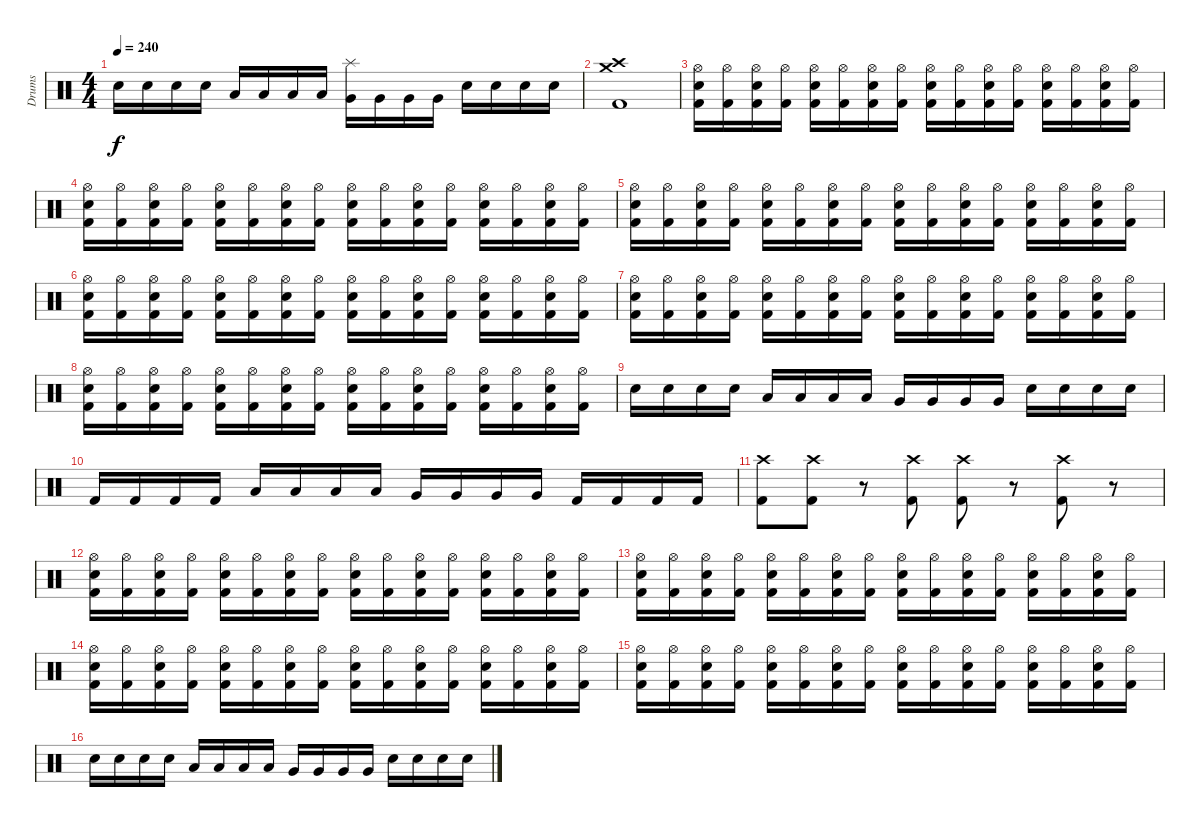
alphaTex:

\track ("Drums" "Drums") {instrument percussion}
\staff {score}
\articulation defaults
\ts (4 4)
\tempo 240
\clef neutral
\ks c "Electric Snare (hit)".16{dy f} "Electric Snare (hit)".16 "Electric Snare (hit)".16 "Electric Snare (hit)".16 "Low Tom (hit)".16 "Low Tom (hit)".16 "Low Tom (hit)".16 "Low Tom (hit)".16
("Splash (hit)" "Very Low Tom (hit)").16 "Very Low Tom (hit)".16 "Very Low Tom (hit)".16 "Very Low Tom (hit)".16 "Electric Snare (hit)".16 "Electric Snare (hit)".16 "Electric Snare (hit)".16 "Electric Snare (hit)".16 |
("Crash high (hit)" "Crash medium (hit)" "Kick (hit) 2").1 |
("Hi-Hat (open)" "Electric Snare (hit)" "Kick (hit) 2").16 ("Hi-Hat (open)" "Kick (hit) 2").16 ("Hi-Hat (open)" "Electric Snare (hit)" "Kick (hit) 2").16 ("Hi-Hat (open)" "Kick (hit) 2").16 ("Hi-Hat (open)" "Electric Snare (hit)" "Kick (hit) 2").16 ("Hi-Hat (open)" "Kick (hit) 2").16 ("Hi-Hat (open)" "Electric Snare (hit)" "Kick (hit) 2").16 ("Hi-Hat (open)" "Kick (hit) 2").16 ("Hi-Hat (open)" "Electric Snare (hit)" "Kick (hit) 2").16 ("Hi-Hat (open)" "Kick (hit) 2").16 ("Hi-Hat (open)" "Electric Snare (hit)" "Kick (hit) 2").16 ("Hi-Hat (open)" "Kick (hit) 2").16 ("Hi-Hat (open)" "Electric Snare (hit)" "Kick (hit) 2").16 ("Hi-Hat (open)" "Kick (hit) 2").16 ("Hi-Hat (open)" "Electric Snare (hit)" "Kick (hit) 2").16 ("Hi-Hat (open)" "Kick (hit) 2").16 |
("Hi-Hat (open)" "Electric Snare (hit)" "Kick (hit) 2").16 ("Hi-Hat (open)" "Kick (hit) 2").16 ("Hi-Hat (open)" "Electric Snare (hit)" "Kick (hit) 2").16 ("Hi-Hat (open)" "Kick (hit) 2").16 ("Hi-Hat (open)" "Electric Snare (hit)" "Kick (hit) 2").16 ("Hi-Hat (open)" "Kick (hit) 2").16 ("Hi-Hat (open)" "Electric Snare (hit)" "Kick (hit) 2").16 ("Hi-Hat (open)" "Kick (hit) 2").16 ("Hi-Hat (open)" "Electric Snare (hit)" "Kick (hit) 2").16 ("Hi-Hat (open)" "Kick (hit) 2").16 ("Hi-Hat (open)" "Electric Snare (hit)" "Kick (hit) 2").16 ("Hi-Hat (open)" "Kick (hit) 2").16 ("Hi-Hat (open)" "Electric Snare (hit)" "Kick (hit) 2").16 ("Hi-Hat (open)" "Kick (hit) 2").16 ("Hi-Hat (open)" "Electric Snare (hit)" "Kick (hit) 2").16 ("Hi-Hat (open)" "Kick (hit) 2").16 |
("Hi-Hat (open)" "Electric Snare (hit)" "Kick (hit) 2").16 ("Hi-Hat (open)" "Kick (hit) 2").16 ("Hi-Hat (open)" "Electric Snare (hit)" "Kick (hit) 2").16 ("Hi-Hat (open)" "Kick (hit) 2").16 ("Hi-Hat (open)" "Electric Snare (hit)" "Kick (hit) 2").16 ("Hi-Hat (open)" "Kick (hit) 2").16 ("Hi-Hat (open)" "Electric Snare (hit)" "Kick (hit) 2").16 ("Hi-Hat (open)" "Kick (hit) 2").16 ("Hi-Hat (open)" "Electric Snare (hit)" "Kick (hit) 2").16 ("Hi-Hat (open)" "Kick (hit) 2").16 ("Hi-Hat (open)" "Electric Snare (hit)" "Kick (hit) 2").16 ("Hi-Hat (open)" "Kick (hit) 2").16 ("Hi-Hat (open)" "Electric Snare (hit)" "Kick (hit) 2").16 ("Hi-Hat (open)" "Kick (hit) 2").16 ("Hi-Hat (open)" "Electric Snare (hit)" "Kick (hit) 2").16 ("Hi-Hat (open)" "Kick (hit) 2").16 |
("Hi-Hat (open)" "Electric Snare (hit)" "Kick (hit) 2").16 ("Hi-Hat (open)" "Kick (hit) 2").16 ("Hi-Hat (open)" "Electric Snare (hit)" "Kick (hit) 2").16 ("Hi-Hat (open)" "Kick (hit) 2").16 ("Hi-Hat (open)" "Electric Snare (hit)" "Kick (hit) 2").16 ("Hi-Hat (open)" "Kick (hit) 2").16 ("Hi-Hat (open)" "Electric Snare (hit)" "Kick (hit) 2").16 ("Hi-Hat (open)" "Kick (hit) 2").16 ("Hi-Hat (open)" "Electric Snare (hit)" "Kick (hit) 2").16 ("Hi-Hat (open)" "Kick (hit) 2").16 ("Hi-Hat (open)" "Electric Snare (hit)" "Kick (hit) 2").16 ("Hi-Hat (open)" "Kick (hit) 2").16 ("Hi-Hat (open)" "Electric Snare (hit)" "Kick (hit) 2").16 ("Hi-Hat (open)" "Kick (hit) 2").16 ("Hi-Hat (open)" "Electric Snare (hit)" "Kick (hit) 2").16 ("Hi-Hat (open)" "Kick (hit) 2").16 |
("Hi-Hat (open)" "Electric Snare (hit)" "Kick (hit) 2").16 ("Hi-Hat (open)" "Kick (hit) 2").16 ("Hi-Hat (open)" "Electric Snare (hit)" "Kick (hit) 2").16 ("Hi-Hat (open)" "Kick (hit) 2").16 ("Hi-Hat (open)" "Electric Snare (hit)" "Kick (hit) 2").16 ("Hi-Hat (open)" "Kick (hit) 2").16 ("Hi-Hat (open)" "Electric Snare (hit)" "Kick (hit) 2").16 ("Hi-Hat (open)" "Kick (hit) 2").16 ("Hi-Hat (open)" "Electric Snare (hit)" "Kick (hit) 2").16 ("Hi-Hat (open)" "Kick (hit) 2").16 ("Hi-Hat (open)" "Electric Snare (hit)" "Kick (hit) 2").16 ("Hi-Hat (open)" "Kick (hit) 2").16 ("Hi-Hat (open)" "Electric Snare (hit)" "Kick (hit) 2").16 ("Hi-Hat (open)" "Kick (hit) 2").16 ("Hi-Hat (open)" "Electric Snare (hit)" "Kick (hit) 2").16 ("Hi-Hat (open)" "Kick (hit) 2").16 |
("Hi-Hat (open)" "Electric Snare (hit)" "Kick (hit) 2").16 ("Hi-Hat (open)" "Kick (hit) 2").16 ("Hi-Hat (open)" "Electric Snare (hit)" "Kick (hit) 2").16 ("Hi-Hat (open)" "Kick (hit) 2").16 ("Hi-Hat (open)" "Electric Snare (hit)" "Kick (hit) 2").16 ("Hi-Hat (open)" "Kick (hit) 2").16 ("Hi-Hat (open)" "Electric Snare (hit)" "Kick (hit) 2").16 ("Hi-Hat (open)" "Kick (hit) 2").16 ("Hi-Hat (open)" "Electric Snare (hit)" "Kick (hit) 2").16 ("Hi-Hat (open)" "Kick (hit) 2").16 ("Hi-Hat (open)" "Electric Snare (hit)" "Kick (hit) 2").16 ("Hi-Hat (open)" "Kick (hit) 2").16 ("Hi-Hat (open)" "Electric Snare (hit)" "Kick (hit) 2").16 ("Hi-Hat (open)" "Kick (hit) 2").16 ("Hi-Hat (open)" "Electric Snare (hit)" "Kick (hit) 2").16 ("Hi-Hat (open)" "Kick (hit) 2").16 |
"Electric Snare (hit)".16 "Electric Snare (hit)".16 "Electric Snare (hit)".16 "Electric Snare (hit)".16 "Low Tom (hit)".16 "Low Tom (hit)".16 "Low Tom (hit)".16 "Low Tom (hit)".16 "Very Low Tom (hit)".16 "Very Low Tom (hit)".16 "Very Low Tom (hit)".16 "Very Low Tom (hit)".16 "Electric Snare (hit)".16 "Electric Snare (hit)".16 "Electric Snare (hit)".16 "Electric Snare (hit)".16 |
"Kick (hit) 2".16 "Kick (hit) 2".16 "Kick (hit) 2".16 "Kick (hit) 2".16 "Low Tom (hit)".16 "Low Tom (hit)".16 "Low Tom (hit)".16 "Low Tom (hit)".16 "Very Low Tom (hit)".16 "Very Low Tom (hit)".16 "Very Low Tom (hit)".16 "Very Low Tom (hit)".16 "Kick (hit) 2".16 "Kick (hit) 2".16 "Kick (hit) 2".16 "Kick (hit) 2".16 |
("Crash high (hit)" "Kick (hit) 2").8 ("Crash high (hit)" "Kick (hit) 2").8 r.8 ("Crash high (hit)" "Kick (hit) 2").8 ("Crash high (hit)" "Kick (hit) 2").8 r.8 ("Crash high (hit)" "Kick (hit) 2").8 r.8 |
("Hi-Hat (open)" "Electric Snare (hit)" "Kick (hit) 2").16 ("Hi-Hat (open)" "Kick (hit) 2").16 ("Hi-Hat (open)" "Electric Snare (hit)" "Kick (hit) 2").16 ("Hi-Hat (open)" "Kick (hit) 2").16 ("Hi-Hat (open)" "Electric Snare (hit)" "Kick (hit) 2").16 ("Hi-Hat (open)" "Kick (hit) 2").16 ("Hi-Hat (open)" "Electric Snare (hit)" "Kick (hit) 2").16 ("Hi-Hat (open)" "Kick (hit) 2").16 ("Hi-Hat (open)" "Electric Snare (hit)" "Kick (hit) 2").16 ("Hi-Hat (open)" "Kick (hit) 2").16 ("Hi-Hat (open)" "Electric Snare (hit)" "Kick (hit) 2").16 ("Hi-Hat (open)" "Kick (hit) 2").16 ("Hi-Hat (open)" "Electric Snare (hit)" "Kick (hit) 2").16 ("Hi-Hat (open)" "Kick (hit) 2").16 ("Hi-Hat (open)" "Electric Snare (hit)" "Kick (hit) 2").16 ("Hi-Hat (open)" "Kick (hit) 2").16 |
("Hi-Hat (open)" "Electric Snare (hit)" "Kick (hit) 2").16 ("Hi-Hat (open)" "Kick (hit) 2").16 ("Hi-Hat (open)" "Electric Snare (hit)" "Kick (hit) 2").16 ("Hi-Hat (open)" "Kick (hit) 2").16 ("Hi-Hat (open)" "Electric Snare (hit)" "Kick (hit) 2").16 ("Hi-Hat (open)" "Kick (hit) 2").16 ("Hi-Hat (open)" "Electric Snare (hit)" "Kick (hit) 2").16 ("Hi-Hat (open)" "Kick (hit) 2").16 ("Hi-Hat (open)" "Electric Snare (hit)" "Kick (hit) 2").16 ("Hi-Hat (open)" "Kick (hit) 2").16 ("Hi-Hat (open)" "Electric Snare (hit)" "Kick (hit) 2").16 ("Hi-Hat (open)" "Kick (hit) 2").16 ("Hi-Hat (open)" "Electric Snare (hit)" "Kick (hit) 2").16 ("Hi-Hat (open)" "Kick (hit) 2").16 ("Hi-Hat (open)" "Electric Snare (hit)" "Kick (hit) 2").16 ("Hi-Hat (open)" "Kick (hit) 2").16 |
("Hi-Hat (open)" "Electric Snare (hit)" "Kick (hit) 2").16 ("Hi-Hat (open)" "Kick (hit) 2").16 ("Hi-Hat (open)" "Electric Snare (hit)" "Kick (hit) 2").16 ("Hi-Hat (open)" "Kick (hit) 2").16 ("Hi-Hat (open)" "Electric Snare (hit)" "Kick (hit) 2").16 ("Hi-Hat (open)" "Kick (hit) 2").16 ("Hi-Hat (open)" "Electric Snare (hit)" "Kick (hit) 2").16 ("Hi-Hat (open)" "Kick (hit) 2").16 ("Hi-Hat (open)" "Electric Snare (hit)" "Kick (hit) 2").16 ("Hi-Hat (open)" "Kick (hit) 2").16 ("Hi-Hat (open)" "Electric Snare (hit)" "Kick (hit) 2").16 ("Hi-Hat (open)" "Kick (hit) 2").16 ("Hi-Hat (open)" "Electric Snare (hit)" "Kick (hit) 2").16 ("Hi-Hat (open)" "Kick (hit) 2").16 ("Hi-Hat (open)" "Electric Snare (hit)" "Kick (hit) 2").16 ("Hi-Hat (open)" "Kick (hit) 2").16 |
("Hi-Hat (open)" "Electric Snare (hit)" "Kick (hit) 2").16 ("Hi-Hat (open)" "Kick (hit) 2").16 ("Hi-Hat (open)" "Electric Snare (hit)" "Kick (hit) 2").16 ("Hi-Hat (open)" "Kick (hit) 2").16 ("Hi-Hat (open)" "Electric Snare (hit)" "Kick (hit) 2").16 ("Hi-Hat (open)" "Kick (hit) 2").16 ("Hi-Hat (open)" "Electric Snare (hit)" "Kick (hit) 2").16 ("Hi-Hat (open)" "Kick (hit) 2").16 ("Hi-Hat (open)" "Electric Snare (hit)" "Kick (hit) 2").16 ("Hi-Hat (open)" "Kick (hit) 2").16 ("Hi-Hat (open)" "Electric Snare (hit)" "Kick (hit) 2").16 ("Hi-Hat (open)" "Kick (hit) 2").16 ("Hi-Hat (open)" "Electric Snare (hit)" "Kick (hit) 2").16 ("Hi-Hat (open)" "Kick (hit) 2").16 ("Hi-Hat (open)" "Electric Snare (hit)" "Kick (hit) 2").16 ("Hi-Hat (open)" "Kick (hit) 2").16 |
"Electric Snare (hit)".16 "Electric Snare (hit)".16 "Electric Snare (hit)".16 "Electric Snare (hit)".16 "Low Tom (hit)".16 "Low Tom (hit)".16 "Low Tom (hit)".16 "Low Tom (hit)".16 "Very Low Tom (hit)".16 "Very Low Tom (hit)".16 "Very Low Tom (hit)".16 "Very Low Tom (hit)".16 "Electric Snare (hit)".16 "Electric Snare (hit)".16 "Electric Snare (hit)".16 "Electric Snare (hit)".16
